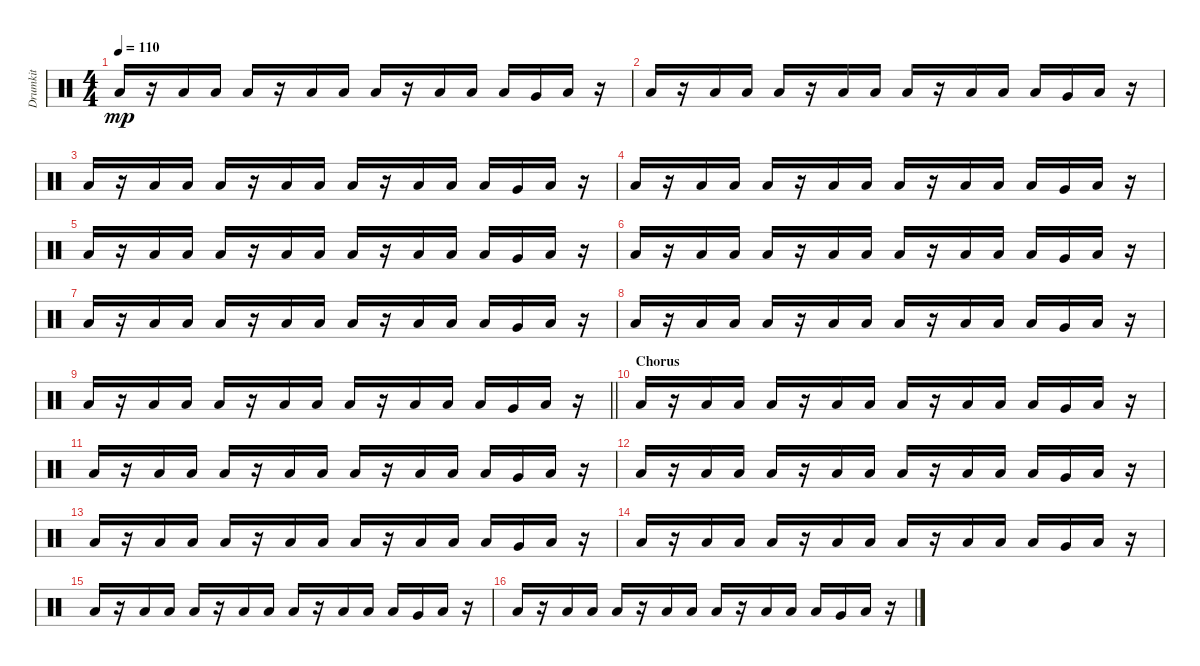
\track ("Drumkit" "Drumkit") {instrument percussion}
\staff {score}
\articulation defaults
\ts (4 4)
\tempo 110
\clef neutral
\ks c "Low Tom (hit)".16{dy mp}
r.16 "Low Tom (hit)".16 "Low Tom (hit)".16 "Low Tom (hit)".16 r.16 "Low Tom (hit)".16 "Low Tom (hit)".16 "Low Tom (hit)".16 r.16 "Low Tom (hit)".16 "Low Tom (hit)".16 "Low Tom (hit)".16 "Very Low Tom (hit)".16 "Low Tom (hit)".16 r.16 |
"Low Tom (hit)".16 r.16 "Low Tom (hit)".16 "Low Tom (hit)".16 "Low Tom (hit)".16 r.16 "Low Tom (hit)".16 "Low Tom (hit)".16 "Low Tom (hit)".16 r.16 "Low Tom (hit)".16 "Low Tom (hit)".16 "Low Tom (hit)".16 "Very Low Tom (hit)".16 "Low Tom (hit)".16 r.16 |
"Low Tom (hit)".16 r.16 "Low Tom (hit)".16 "Low Tom (hit)".16 "Low Tom (hit)".16 r.16 "Low Tom (hit)".16 "Low Tom (hit)".16 "Low Tom (hit)".16 r.16 "Low Tom (hit)".16 "Low Tom (hit)".16 "Low Tom (hit)".16 "Very Low Tom (hit)".16 "Low Tom (hit)".16 r.16 |
"Low Tom (hit)".16 r.16 "Low Tom (hit)".16 "Low Tom (hit)".16 "Low Tom (hit)".16 r.16 "Low Tom (hit)".16 "Low Tom (hit)".16 "Low Tom (hit)".16 r.16 "Low Tom (hit)".16 "Low Tom (hit)".16 "Low Tom (hit)".16 "Very Low Tom (hit)".16 "Low Tom (hit)".16 r.16 |
"Low Tom (hit)".16 r.16 "Low Tom (hit)".16 "Low Tom (hit)".16 "Low Tom (hit)".16 r.16 "Low Tom (hit)".16 "Low Tom (hit)".16 "Low Tom (hit)".16 r.16 "Low Tom (hit)".16 "Low Tom (hit)".16 "Low Tom (hit)".16 "Very Low Tom (hit)".16 "Low Tom (hit)".16 r.16 |
"Low Tom (hit)".16 r.16 "Low Tom (hit)".16 "Low Tom (hit)".16 "Low Tom (hit)".16 r.16 "Low Tom (hit)".16 "Low Tom (hit)".16 "Low Tom (hit)".16 r.16 "Low Tom (hit)".16 "Low Tom (hit)".16 "Low Tom (hit)".16 "Very Low Tom (hit)".16 "Low Tom (hit)".16 r.16 |
"Low Tom (hit)".16 r.16 "Low Tom (hit)".16 "Low Tom (hit)".16 "Low Tom (hit)".16 r.16 "Low Tom (hit)".16 "Low Tom (hit)".16 "Low Tom (hit)".16 r.16 "Low Tom (hit)".16 "Low Tom (hit)".16 "Low Tom (hit)".16 "Very Low Tom (hit)".16 "Low Tom (hit)".16 r.16 |
"Low Tom (hit)".16 r.16 "Low Tom (hit)".16 "Low Tom (hit)".16 "Low Tom (hit)".16 r.16 "Low Tom (hit)".16 "Low Tom (hit)".16 "Low Tom (hit)".16 r.16 "Low Tom (hit)".16 "Low Tom (hit)".16 "Low Tom (hit)".16 "Very Low Tom (hit)".16 "Low Tom (hit)".16 r.16 |
\barLineRight lightlight "Low Tom (hit)".16
r.16 "Low Tom (hit)".16 "Low Tom (hit)".16 "Low Tom (hit)".16 r.16 "Low Tom (hit)".16 "Low Tom (hit)".16 "Low Tom (hit)".16 r.16 "Low Tom (hit)".16 "Low Tom (hit)".16 "Low Tom (hit)".16 "Very Low Tom (hit)".16 "Low Tom (hit)".16 r.16 |
\section ("" "Chorus")
"Low Tom (hit)".16 r.16 "Low Tom (hit)".16 "Low Tom (hit)".16 "Low Tom (hit)".16 r.16 "Low Tom (hit)".16 "Low Tom (hit)".16 "Low Tom (hit)".16 r.16 "Low Tom (hit)".16 "Low Tom (hit)".16 "Low Tom (hit)".16 "Very Low Tom (hit)".16 "Low Tom (hit)".16 r.16 |
"Low Tom (hit)".16 r.16 "Low Tom (hit)".16 "Low Tom (hit)".16 "Low Tom (hit)".16 r.16 "Low Tom (hit)".16 "Low Tom (hit)".16 "Low Tom (hit)".16 r.16 "Low Tom (hit)".16 "Low Tom (hit)".16 "Low Tom (hit)".16 "Very Low Tom (hit)".16 "Low Tom (hit)".16 r.16 |
"Low Tom (hit)".16 r.16 "Low Tom (hit)".16 "Low Tom (hit)".16 "Low Tom (hit)".16 r.16 "Low Tom (hit)".16 "Low Tom (hit)".16 "Low Tom (hit)".16 r.16 "Low Tom (hit)".16 "Low Tom (hit)".16 "Low Tom (hit)".16 "Very Low Tom (hit)".16 "Low Tom (hit)".16 r.16 |
"Low Tom (hit)".16 r.16 "Low Tom (hit)".16 "Low Tom (hit)".16 "Low Tom (hit)".16 r.16 "Low Tom (hit)".16 "Low Tom (hit)".16 "Low Tom (hit)".16 r.16 "Low Tom (hit)".16 "Low Tom (hit)".16 "Low Tom (hit)".16 "Very Low Tom (hit)".16 "Low Tom (hit)".16 r.16 |
"Low Tom (hit)".16 r.16 "Low Tom (hit)".16 "Low Tom (hit)".16 "Low Tom (hit)".16 r.16 "Low Tom (hit)".16 "Low Tom (hit)".16 "Low Tom (hit)".16 r.16 "Low Tom (hit)".16 "Low Tom (hit)".16 "Low Tom (hit)".16 "Very Low Tom (hit)".16 "Low Tom (hit)".16 r.16 |
"Low Tom (hit)".16 r.16 "Low Tom (hit)".16 "Low Tom (hit)".16 "Low Tom (hit)".16 r.16 "Low Tom (hit)".16 "Low Tom (hit)".16 "Low Tom (hit)".16 r.16 "Low Tom (hit)".16 "Low Tom (hit)".16 "Low Tom (hit)".16 "Very Low Tom (hit)".16 "Low Tom (hit)".16 r.16 |
"Low Tom (hit)".16 r.16 "Low Tom (hit)".16 "Low Tom (hit)".16 "Low Tom (hit)".16 r.16 "Low Tom (hit)".16 "Low Tom (hit)".16 "Low Tom (hit)".16 r.16 "Low Tom (hit)".16 "Low Tom (hit)".16 "Low Tom (hit)".16 "Very Low Tom (hit)".16 "Low Tom (hit)".16 r.16
